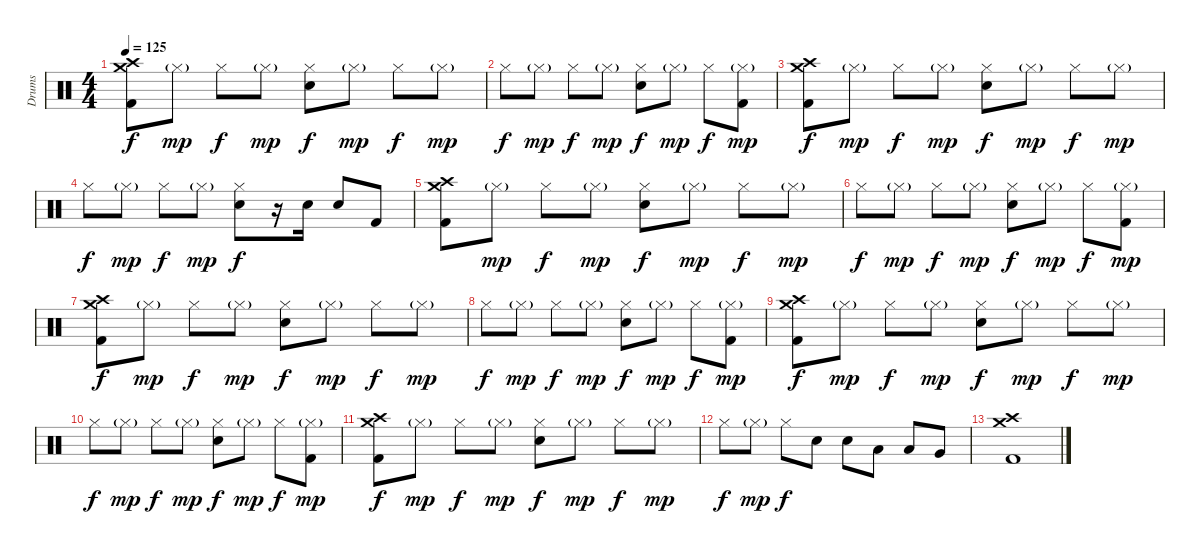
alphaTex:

\track ("Drums" "Drums") {instrument percussion}
\staff {score}
\articulation defaults
\ts (4 4)
\tempo 125
\clef neutral
\ks c
("Crash medium (hit)" "Crash high (hit)" "Kick (hit) 2").8{dy f} "Hi-Hat (closed)"{g}.8{dy mp} "Hi-Hat (closed)".8{dy f} "Hi-Hat (closed)"{g}.8{dy mp} ("Hi-Hat (closed)" "Electric Snare (hit)").8{dy f} "Hi-Hat (closed)"{g}.8{dy mp} "Hi-Hat (closed)".8{dy f} "Hi-Hat (closed)"{g}.8{dy mp} |
"Hi-Hat (closed)".8{dy f} "Hi-Hat (closed)"{g}.8{dy mp} "Hi-Hat (closed)".8{dy f} "Hi-Hat (closed)"{g}.8{dy mp} ("Hi-Hat (closed)" "Electric Snare (hit)").8{dy f} "Hi-Hat (closed)"{g}.8{dy mp} "Hi-Hat (closed)".8{dy f} ("Hi-Hat (closed)"{g} "Kick (hit) 2").8{dy mp} |
("Crash medium (hit)" "Crash high (hit)" "Kick (hit) 2").8{dy f} "Hi-Hat (closed)"{g}.8{dy mp} "Hi-Hat (closed)".8{dy f} "Hi-Hat (closed)"{g}.8{dy mp} ("Hi-Hat (closed)" "Electric Snare (hit)").8{dy f} "Hi-Hat (closed)"{g}.8{dy mp} "Hi-Hat (closed)".8{dy f} "Hi-Hat (closed)"{g}.8{dy mp} |
"Hi-Hat (closed)".8{dy f} "Hi-Hat (closed)"{g}.8{dy mp} "Hi-Hat (closed)".8{dy f} "Hi-Hat (closed)"{g}.8{dy mp} ("Hi-Hat (closed)" "Electric Snare (hit)").8{dy f} r.16 "Electric Snare (hit)".16 "Electric Snare (hit)".8 "Kick (hit) 2".8 |
("Crash medium (hit)" "Crash high (hit)" "Kick (hit) 2").8 "Hi-Hat (closed)"{g}.8{dy mp} "Hi-Hat (closed)".8{dy f} "Hi-Hat (closed)"{g}.8{dy mp} ("Hi-Hat (closed)" "Electric Snare (hit)").8{dy f} "Hi-Hat (closed)"{g}.8{dy mp} "Hi-Hat (closed)".8{dy f} "Hi-Hat (closed)"{g}.8{dy mp} |
"Hi-Hat (closed)".8{dy f} "Hi-Hat (closed)"{g}.8{dy mp} "Hi-Hat (closed)".8{dy f} "Hi-Hat (closed)"{g}.8{dy mp} ("Hi-Hat (closed)" "Electric Snare (hit)").8{dy f} "Hi-Hat (closed)"{g}.8{dy mp} "Hi-Hat (closed)".8{dy f} ("Hi-Hat (closed)"{g} "Kick (hit) 2").8{dy mp} |
("Crash medium (hit)" "Crash high (hit)" "Kick (hit) 2").8{dy f} "Hi-Hat (closed)"{g}.8{dy mp} "Hi-Hat (closed)".8{dy f} "Hi-Hat (closed)"{g}.8{dy mp} ("Hi-Hat (closed)" "Electric Snare (hit)").8{dy f} "Hi-Hat (closed)"{g}.8{dy mp} "Hi-Hat (closed)".8{dy f} "Hi-Hat (closed)"{g}.8{dy mp} |
"Hi-Hat (closed)".8{dy f} "Hi-Hat (closed)"{g}.8{dy mp} "Hi-Hat (closed)".8{dy f} "Hi-Hat (closed)"{g}.8{dy mp} ("Hi-Hat (closed)" "Electric Snare (hit)").8{dy f} "Hi-Hat (closed)"{g}.8{dy mp} "Hi-Hat (closed)".8{dy f} ("Hi-Hat (closed)"{g} "Kick (hit) 2").8{dy mp} |
("Crash medium (hit)" "Crash high (hit)" "Kick (hit) 2").8{dy f} "Hi-Hat (closed)"{g}.8{dy mp} "Hi-Hat (closed)".8{dy f} "Hi-Hat (closed)"{g}.8{dy mp} ("Hi-Hat (closed)" "Electric Snare (hit)").8{dy f} "Hi-Hat (closed)"{g}.8{dy mp} "Hi-Hat (closed)".8{dy f} "Hi-Hat (closed)"{g}.8{dy mp} |
"Hi-Hat (closed)".8{dy f} "Hi-Hat (closed)"{g}.8{dy mp} "Hi-Hat (closed)".8{dy f} "Hi-Hat (closed)"{g}.8{dy mp} ("Hi-Hat (closed)" "Electric Snare (hit)").8{dy f} "Hi-Hat (closed)"{g}.8{dy mp} "Hi-Hat (closed)".8{dy f} ("Hi-Hat (closed)"{g} "Kick (hit) 2").8{dy mp} |
("Crash medium (hit)" "Crash high (hit)" "Kick (hit) 2").8{dy f} "Hi-Hat (closed)"{g}.8{dy mp} "Hi-Hat (closed)".8{dy f} "Hi-Hat (closed)"{g}.8{dy mp} ("Hi-Hat (closed)" "Electric Snare (hit)").8{dy f} "Hi-Hat (closed)"{g}.8{dy mp} "Hi-Hat (closed)".8{dy f} "Hi-Hat (closed)"{g}.8{dy mp} |
"Hi-Hat (closed)".8{dy f} "Hi-Hat (closed)"{g}.8{dy mp} "Hi-Hat (closed)".8{dy f} "Electric Snare (hit)".8 "Electric Snare (hit)".8 "Low Tom (hit)".8 "Low Tom (hit)".8 "Very Low Tom (hit)".8 |
("Crash medium (hit)" "Crash high (hit)" "Kick (hit) 2").1
